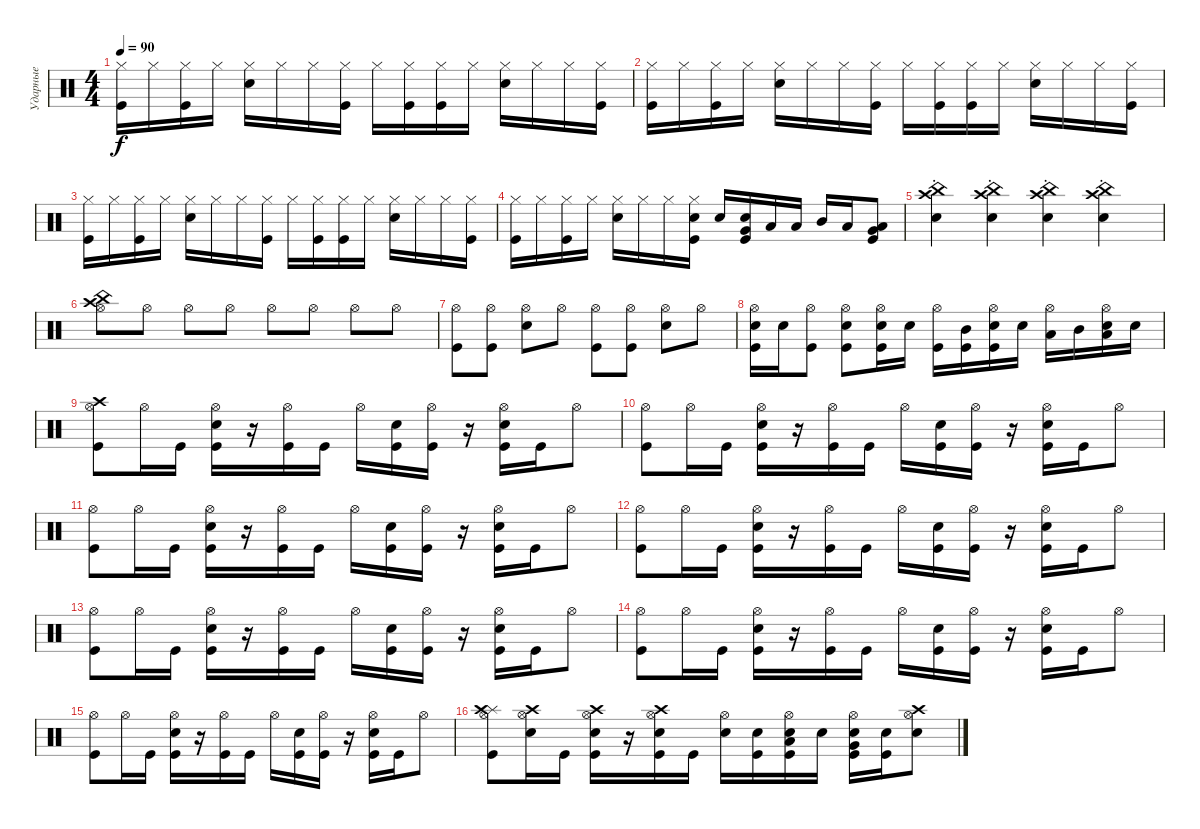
\track ("Ударные" "Ударные") {instrument percussion}
\staff {score}
\articulation defaults
\ts (4 4)
\tempo 90
\clef neutral
\ks c
("Hi-Hat (closed)" "Kick (hit)").16{dy f} "Hi-Hat (closed)".16 ("Hi-Hat (closed)" "Kick (hit)").16 "Hi-Hat (closed)".16 ("Hi-Hat (closed)" "Snare (hit) 2").16 "Hi-Hat (closed)".16 "Hi-Hat (closed)".16 ("Hi-Hat (closed)" "Kick (hit)").16 "Hi-Hat (closed)".16 ("Hi-Hat (closed)" "Kick (hit)").16 ("Hi-Hat (closed)" "Kick (hit)").16 "Hi-Hat (closed)".16 ("Hi-Hat (closed)" "Snare (hit) 2").16 "Hi-Hat (closed)".16 "Hi-Hat (closed)".16 ("Hi-Hat (closed)" "Kick (hit)").16 |
("Hi-Hat (closed)" "Kick (hit)").16 "Hi-Hat (closed)".16 ("Hi-Hat (closed)" "Kick (hit)").16 "Hi-Hat (closed)".16 ("Hi-Hat (closed)" "Snare (hit) 2").16 "Hi-Hat (closed)".16 "Hi-Hat (closed)".16 ("Hi-Hat (closed)" "Kick (hit)").16 "Hi-Hat (closed)".16 ("Hi-Hat (closed)" "Kick (hit)").16 ("Hi-Hat (closed)" "Kick (hit)").16 "Hi-Hat (closed)".16 ("Hi-Hat (closed)" "Snare (hit) 2").16 "Hi-Hat (closed)".16 "Hi-Hat (closed)".16 ("Hi-Hat (closed)" "Kick (hit)").16 |
("Hi-Hat (closed)" "Kick (hit)").16 "Hi-Hat (closed)".16 ("Hi-Hat (closed)" "Kick (hit)").16 "Hi-Hat (closed)".16 ("Hi-Hat (closed)" "Snare (hit) 2").16 "Hi-Hat (closed)".16 "Hi-Hat (closed)".16 ("Hi-Hat (closed)" "Kick (hit)").16 "Hi-Hat (closed)".16 ("Hi-Hat (closed)" "Kick (hit)").16 ("Hi-Hat (closed)" "Kick (hit)").16 "Hi-Hat (closed)".16 ("Hi-Hat (closed)" "Snare (hit) 2").16 "Hi-Hat (closed)".16 "Hi-Hat (closed)".16 ("Hi-Hat (closed)" "Kick (hit)").16 |
("Hi-Hat (closed)" "Kick (hit)").16 "Hi-Hat (closed)".16 ("Hi-Hat (closed)" "Kick (hit)").16 "Hi-Hat (closed)".16 ("Hi-Hat (closed)" "Snare (hit) 2").16 "Hi-Hat (closed)".16 "Hi-Hat (closed)".16 ("Hi-Hat (closed)" "Kick (hit)" "Snare (hit) 2").16 "Snare (hit) 2".16 ("Snare (hit) 2" "Very Low Tom (hit)" "Kick (hit)").16 "Low Tom (hit)".16 "Low Tom (hit)".16 "Mid Tom (hit)".16 "Low Tom (hit)".16 ("Very Low Tom (hit)" "Low Floor Tom (hit)" "Kick (hit)").8 |
("Crash high (hit)"{st} "China (hit)"{st} "Snare (hit) 2"{st}).4 ("Crash high (hit)"{st} "China (hit)"{st} "Snare (hit) 2"{st}).4 ("Crash high (hit)"{st} "China (hit)"{st} "Snare (hit) 2"{st}).4 ("Crash high (hit)"{st} "China (hit)"{st} "Snare (hit) 2"{st}).4 |
("Crash high (hit)" "China (hit)" "Hi-Hat (open)").8 "Hi-Hat (open)".8 "Hi-Hat (open)".8 "Hi-Hat (open)".8 "Hi-Hat (open)".8 "Hi-Hat (open)".8 "Hi-Hat (open)".8 "Hi-Hat (open)".8 |
("Hi-Hat (open)" "Kick (hit)").8 ("Hi-Hat (open)" "Kick (hit)").8 ("Hi-Hat (open)" "Snare (hit) 2").8 "Hi-Hat (open)".8 ("Hi-Hat (open)" "Kick (hit)").8 ("Hi-Hat (open)" "Kick (hit)").8 ("Hi-Hat (open)" "Snare (hit) 2").8 "Hi-Hat (open)".8 |
("Hi-Hat (open)" "Kick (hit)" "Snare (hit) 2").16 "Snare (hit) 2".16 ("Hi-Hat (open)" "Kick (hit)").8 ("Hi-Hat (open)" "Kick (hit)" "Snare (hit) 2").8 ("Hi-Hat (open)" "Kick (hit)" "Snare (hit) 2").16 "Snare (hit) 2".16 ("Hi-Hat (open)" "Kick (hit)").16 ("Mid Tom (hit)" "Kick (hit)").16 ("Hi-Hat (open)" "Kick (hit)" "Snare (hit) 2").16 "Snare (hit) 2".16 ("Hi-Hat (open)" "Low Tom (hit)").16 "Mid Tom (hit)".16 ("Low Tom (hit)" "Snare (hit) 2" "Hi-Hat (open)").16 "Snare (hit) 2".16 |
("Crash high (hit)" "Kick (hit)" "Hi-Hat (open)").8 "Hi-Hat (open)".16 "Kick (hit)".16 ("Kick (hit)" "Hi-Hat (open)" "Snare (hit) 2").16 r.16 ("Kick (hit)" "Hi-Hat (open)").16 "Kick (hit)".16 "Hi-Hat (open)".16 ("Kick (hit)" "Snare (hit) 2").16 ("Kick (hit)" "Hi-Hat (open)").16 r.16 ("Kick (hit)" "Hi-Hat (open)" "Snare (hit) 2").16 "Kick (hit)".16 "Hi-Hat (open)".8 |
("Hi-Hat (open)" "Kick (hit)").8 "Hi-Hat (open)".16 "Kick (hit)".16 ("Kick (hit)" "Hi-Hat (open)" "Snare (hit) 2").16 r.16 ("Kick (hit)" "Hi-Hat (open)").16 "Kick (hit)".16 "Hi-Hat (open)".16 ("Kick (hit)" "Snare (hit) 2").16 ("Kick (hit)" "Hi-Hat (open)").16 r.16 ("Kick (hit)" "Hi-Hat (open)" "Snare (hit) 2").16 "Kick (hit)".16 "Hi-Hat (open)".8 |
("Hi-Hat (open)" "Kick (hit)").8 "Hi-Hat (open)".16 "Kick (hit)".16 ("Kick (hit)" "Hi-Hat (open)" "Snare (hit) 2").16 r.16 ("Kick (hit)" "Hi-Hat (open)").16 "Kick (hit)".16 "Hi-Hat (open)".16 ("Kick (hit)" "Snare (hit) 2").16 ("Kick (hit)" "Hi-Hat (open)").16 r.16 ("Kick (hit)" "Hi-Hat (open)" "Snare (hit) 2").16 "Kick (hit)".16 "Hi-Hat (open)".8 |
("Hi-Hat (open)" "Kick (hit)").8 "Hi-Hat (open)".16 "Kick (hit)".16 ("Kick (hit)" "Hi-Hat (open)" "Snare (hit) 2").16 r.16 ("Kick (hit)" "Hi-Hat (open)").16 "Kick (hit)".16 "Hi-Hat (open)".16 ("Kick (hit)" "Snare (hit) 2").16 ("Kick (hit)" "Hi-Hat (open)").16 r.16 ("Kick (hit)" "Hi-Hat (open)" "Snare (hit) 2").16 "Kick (hit)".16 "Hi-Hat (open)".8 |
("Hi-Hat (open)" "Kick (hit)").8 "Hi-Hat (open)".16 "Kick (hit)".16 ("Kick (hit)" "Hi-Hat (open)" "Snare (hit) 2").16 r.16 ("Kick (hit)" "Hi-Hat (open)").16 "Kick (hit)".16 "Hi-Hat (open)".16 ("Kick (hit)" "Snare (hit) 2").16 ("Kick (hit)" "Hi-Hat (open)").16 r.16 ("Kick (hit)" "Hi-Hat (open)" "Snare (hit) 2").16 "Kick (hit)".16 "Hi-Hat (open)".8 |
("Hi-Hat (open)" "Kick (hit)").8 "Hi-Hat (open)".16 "Kick (hit)".16 ("Kick (hit)" "Hi-Hat (open)" "Snare (hit) 2").16 r.16 ("Kick (hit)" "Hi-Hat (open)").16 "Kick (hit)".16 "Hi-Hat (open)".16 ("Kick (hit)" "Snare (hit) 2").16 ("Kick (hit)" "Hi-Hat (open)").16 r.16 ("Kick (hit)" "Hi-Hat (open)" "Snare (hit) 2").16 "Kick (hit)".16 "Hi-Hat (open)".8 |
("Hi-Hat (open)" "Kick (hit)").8 "Hi-Hat (open)".16 "Kick (hit)".16 ("Kick (hit)" "Hi-Hat (open)" "Snare (hit) 2").16 r.16 ("Kick (hit)" "Hi-Hat (open)").16 "Kick (hit)".16 "Hi-Hat (open)".16 ("Kick (hit)" "Snare (hit) 2").16 ("Kick (hit)" "Hi-Hat (open)").16 r.16 ("Kick (hit)" "Hi-Hat (open)" "Snare (hit) 2").16 "Kick (hit)".16 "Hi-Hat (open)".8 |
("Hi-Hat (open)" "Kick (hit)" "Splash (hit)" "Crash high (hit)").8 ("Crash high (hit)" "Hi-Hat (open)" "Snare (hit) 2").16 "Kick (hit)".16 ("Kick (hit)" "Hi-Hat (open)" "Snare (hit) 2" "Crash high (hit)").16 r.16 ("Kick (hit)" "Hi-Hat (open)" "Snare (hit) 2" "Crash high (hit)").16 "Kick (hit)".16 ("Hi-Hat (open)" "Snare (hit) 2").16 ("Kick (hit)" "Snare (hit) 2").16 ("Kick (hit)" "Hi-Hat (open)" "Low Tom (hit)" "Snare (hit) 2").16 "Snare (hit) 2".16 ("Kick (hit)" "Hi-Hat (open)" "Very Low Tom (hit)" "Snare (hit) 2").16 ("Kick (hit)" "Snare (hit) 2").16 ("Hi-Hat (open)" "Snare (hit) 2" "Crash high (hit)").8
